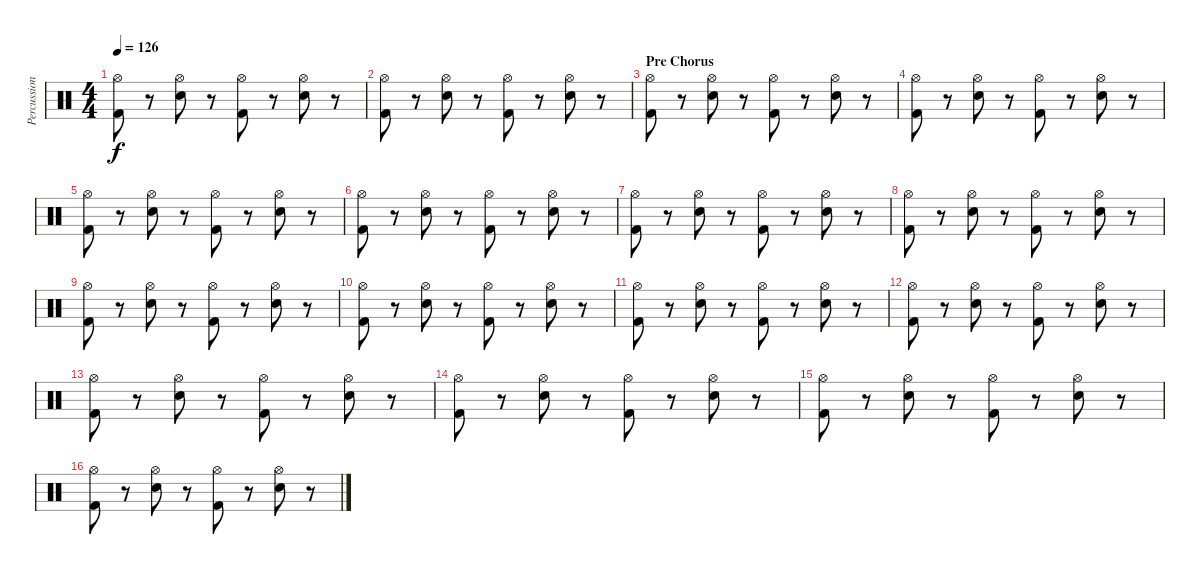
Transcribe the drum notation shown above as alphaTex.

\track ("Percussion" "Percussion") {instrument percussion}
\staff {score}
\articulation defaults
\ts (4 4)
\tempo 126
\clef neutral
\ks c
("Hi-Hat (open)" "Kick (hit) 2").8{dy f} r.8 ("Hi-Hat (open)" "Snare (hit) 2").8 r.8 ("Hi-Hat (open)" "Kick (hit) 2").8 r.8 ("Hi-Hat (open)" "Snare (hit) 2").8 r.8 |
("Hi-Hat (open)" "Kick (hit) 2").8 r.8 ("Hi-Hat (open)" "Snare (hit) 2").8 r.8 ("Hi-Hat (open)" "Kick (hit) 2").8 r.8 ("Hi-Hat (open)" "Snare (hit) 2").8 r.8 |
\section ("" "Pre Chorus")
("Hi-Hat (open)" "Kick (hit) 2").8 r.8 ("Hi-Hat (open)" "Snare (hit) 2").8 r.8 ("Hi-Hat (open)" "Kick (hit) 2").8 r.8 ("Hi-Hat (open)" "Snare (hit) 2").8 r.8 |
("Hi-Hat (open)" "Kick (hit) 2").8 r.8 ("Hi-Hat (open)" "Snare (hit) 2").8 r.8 ("Hi-Hat (open)" "Kick (hit) 2").8 r.8 ("Hi-Hat (open)" "Snare (hit) 2").8 r.8 |
("Hi-Hat (open)" "Kick (hit) 2").8 r.8 ("Hi-Hat (open)" "Snare (hit) 2").8 r.8 ("Hi-Hat (open)" "Kick (hit) 2").8 r.8 ("Hi-Hat (open)" "Snare (hit) 2").8 r.8 |
("Hi-Hat (open)" "Kick (hit) 2").8 r.8 ("Hi-Hat (open)" "Snare (hit) 2").8 r.8 ("Hi-Hat (open)" "Kick (hit) 2").8 r.8 ("Hi-Hat (open)" "Snare (hit) 2").8 r.8 |
("Hi-Hat (open)" "Kick (hit) 2").8 r.8 ("Hi-Hat (open)" "Snare (hit) 2").8 r.8 ("Hi-Hat (open)" "Kick (hit) 2").8 r.8 ("Hi-Hat (open)" "Snare (hit) 2").8 r.8 |
("Hi-Hat (open)" "Kick (hit) 2").8 r.8 ("Hi-Hat (open)" "Snare (hit) 2").8 r.8 ("Hi-Hat (open)" "Kick (hit) 2").8 r.8 ("Hi-Hat (open)" "Snare (hit) 2").8 r.8 |
("Hi-Hat (open)" "Kick (hit) 2").8 r.8 ("Hi-Hat (open)" "Snare (hit) 2").8 r.8 ("Hi-Hat (open)" "Kick (hit) 2").8 r.8 ("Hi-Hat (open)" "Snare (hit) 2").8 r.8 |
("Hi-Hat (open)" "Kick (hit) 2").8 r.8 ("Hi-Hat (open)" "Snare (hit) 2").8 r.8 ("Hi-Hat (open)" "Kick (hit) 2").8 r.8 ("Hi-Hat (open)" "Snare (hit) 2").8 r.8 |
("Hi-Hat (open)" "Kick (hit) 2").8 r.8 ("Hi-Hat (open)" "Snare (hit) 2").8 r.8 ("Hi-Hat (open)" "Kick (hit) 2").8 r.8 ("Hi-Hat (open)" "Snare (hit) 2").8 r.8 |
("Hi-Hat (open)" "Kick (hit) 2").8 r.8 ("Hi-Hat (open)" "Snare (hit) 2").8 r.8 ("Hi-Hat (open)" "Kick (hit) 2").8 r.8 ("Hi-Hat (open)" "Snare (hit) 2").8 r.8 |
("Hi-Hat (open)" "Kick (hit) 2").8 r.8 ("Hi-Hat (open)" "Snare (hit) 2").8 r.8 ("Hi-Hat (open)" "Kick (hit) 2").8 r.8 ("Hi-Hat (open)" "Snare (hit) 2").8 r.8 |
("Hi-Hat (open)" "Kick (hit) 2").8 r.8 ("Hi-Hat (open)" "Snare (hit) 2").8 r.8 ("Hi-Hat (open)" "Kick (hit) 2").8 r.8 ("Hi-Hat (open)" "Snare (hit) 2").8 r.8 |
("Hi-Hat (open)" "Kick (hit) 2").8 r.8 ("Hi-Hat (open)" "Snare (hit) 2").8 r.8 ("Hi-Hat (open)" "Kick (hit) 2").8 r.8 ("Hi-Hat (open)" "Snare (hit) 2").8 r.8 |
("Hi-Hat (open)" "Kick (hit) 2").8 r.8 ("Hi-Hat (open)" "Snare (hit) 2").8 r.8 ("Hi-Hat (open)" "Kick (hit) 2").8 r.8 ("Hi-Hat (open)" "Snare (hit) 2").8 r.8
